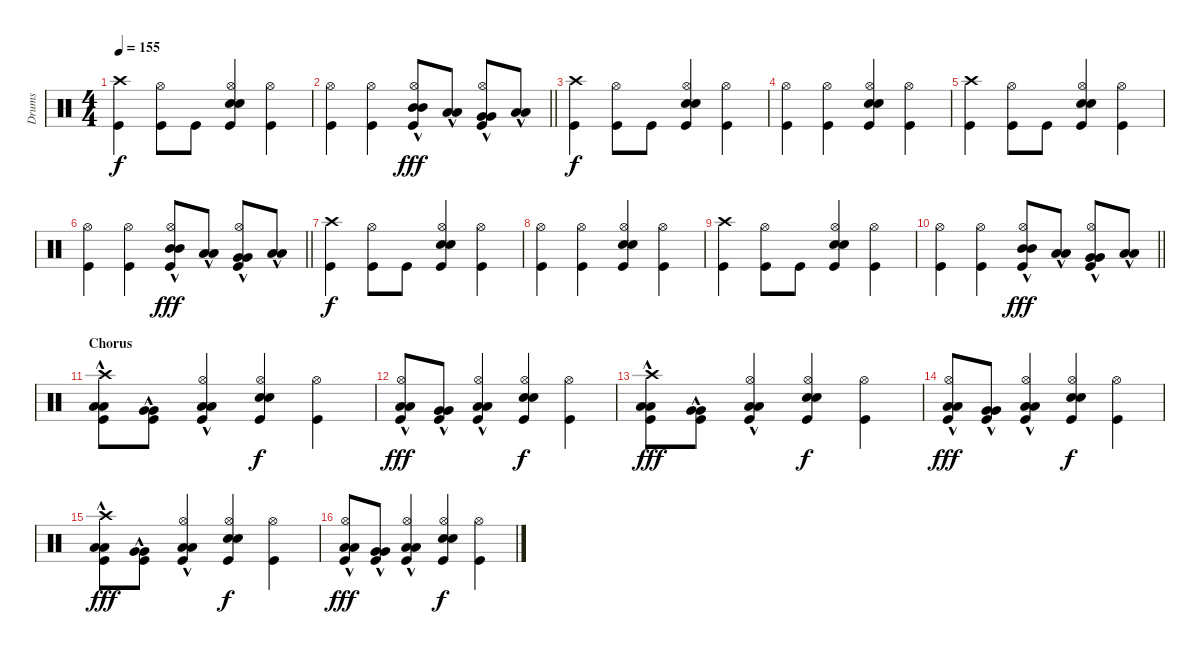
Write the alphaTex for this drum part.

\track ("Drums" "Drums") {instrument percussion}
\staff {score}
\articulation defaults
\ts (4 4)
\tempo 155
\clef neutral
\ks c
("Crash high (hit)" "Kick (hit)").4{dy f} ("Hi-Hat (open)" "Kick (hit)").8 "Kick (hit)".8 ("Hi-Hat (open)" "Snare (hit) 2" "Electric Snare (hit)" "Kick (hit)").4 ("Hi-Hat (open)" "Kick (hit)").4 |
\barLineRight lightlight
("Hi-Hat (open)" "Kick (hit)").4 ("Hi-Hat (open)" "Kick (hit)").4 ("Hi-Hat (open)" "Mid Tom (hit)"{hac} "Mid Tom (hit)"{hac} "Kick (hit)").8{dy fff} ("Low Tom (hit)"{hac} "Low Tom (hit)"{hac}).8 ("Hi-Hat (open)" "Very Low Tom (hit)"{hac} "Very Low Tom (hit)"{hac} "Kick (hit)").8 ("Low Floor Tom (hit)"{hac} "Low Floor Tom (hit)"{hac}).8 |
("Crash high (hit)" "Kick (hit)").4{dy f} ("Hi-Hat (open)" "Kick (hit)").8 "Kick (hit)".8 ("Hi-Hat (open)" "Snare (hit) 2" "Electric Snare (hit)" "Kick (hit)").4 ("Hi-Hat (open)" "Kick (hit)").4 |
("Hi-Hat (open)" "Kick (hit)").4 ("Hi-Hat (open)" "Kick (hit)").4 ("Hi-Hat (open)" "Snare (hit) 2" "Electric Snare (hit)" "Kick (hit)").4 ("Hi-Hat (open)" "Kick (hit)").4 |
("Crash high (hit)" "Kick (hit)").4 ("Hi-Hat (open)" "Kick (hit)").8 "Kick (hit)".8 ("Hi-Hat (open)" "Snare (hit) 2" "Electric Snare (hit)" "Kick (hit)").4 ("Hi-Hat (open)" "Kick (hit)").4 |
\barLineRight lightlight
("Hi-Hat (open)" "Kick (hit)").4 ("Hi-Hat (open)" "Kick (hit)").4 ("Hi-Hat (open)" "Mid Tom (hit)"{hac} "Mid Tom (hit)"{hac} "Kick (hit)").8{dy fff} ("Low Tom (hit)"{hac} "Low Tom (hit)"{hac}).8 ("Hi-Hat (open)" "Very Low Tom (hit)"{hac} "Very Low Tom (hit)"{hac} "Kick (hit)").8 ("Low Floor Tom (hit)"{hac} "Low Floor Tom (hit)"{hac}).8 |
("Crash high (hit)" "Kick (hit)").4{dy f} ("Hi-Hat (open)" "Kick (hit)").8 "Kick (hit)".8 ("Hi-Hat (open)" "Snare (hit) 2" "Electric Snare (hit)" "Kick (hit)").4 ("Hi-Hat (open)" "Kick (hit)").4 |
("Hi-Hat (open)" "Kick (hit)").4 ("Hi-Hat (open)" "Kick (hit)").4 ("Hi-Hat (open)" "Snare (hit) 2" "Electric Snare (hit)" "Kick (hit)").4 ("Hi-Hat (open)" "Kick (hit)").4 |
("Crash high (hit)" "Kick (hit)").4 ("Hi-Hat (open)" "Kick (hit)").8 "Kick (hit)".8 ("Hi-Hat (open)" "Snare (hit) 2" "Electric Snare (hit)" "Kick (hit)").4 ("Hi-Hat (open)" "Kick (hit)").4 |
\barLineRight lightlight
("Hi-Hat (open)" "Kick (hit)").4 ("Hi-Hat (open)" "Kick (hit)").4 ("Hi-Hat (open)" "Mid Tom (hit)"{hac} "Mid Tom (hit)"{hac} "Kick (hit)").8{dy fff} ("Low Tom (hit)"{hac} "Low Tom (hit)"{hac}).8 ("Hi-Hat (open)" "Very Low Tom (hit)"{hac} "Very Low Tom (hit)"{hac} "Kick (hit)").8 ("Low Floor Tom (hit)"{hac} "Low Floor Tom (hit)"{hac}).8 |
\section ("" "Chorus")
("Crash high (hit)" "Low Tom (hit)"{hac} "Low Tom (hit)"{hac} "Kick (hit)").8 ("Very Low Tom (hit)"{hac} "Very Low Tom (hit)"{hac} "Kick (hit)").8 ("Hi-Hat (open)" "Low Floor Tom (hit)"{hac} "Low Floor Tom (hit)"{hac} "Kick (hit)").4 ("Hi-Hat (open)" "Snare (hit) 2" "Electric Snare (hit)" "Kick (hit)").4{dy f} ("Hi-Hat (open)" "Kick (hit)").4 |
("Hi-Hat (open)" "Low Tom (hit)"{hac} "Low Tom (hit)"{hac} "Kick (hit)").8{dy fff} ("Very Low Tom (hit)"{hac} "Very Low Tom (hit)"{hac} "Kick (hit)").8 ("Hi-Hat (open)" "Low Floor Tom (hit)"{hac} "Low Floor Tom (hit)"{hac} "Kick (hit)").4 ("Hi-Hat (open)" "Snare (hit) 2" "Electric Snare (hit)" "Kick (hit)").4{dy f} ("Hi-Hat (open)" "Kick (hit)").4 |
("Crash high (hit)" "Low Tom (hit)"{hac} "Low Tom (hit)"{hac} "Kick (hit)").8{dy fff} ("Very Low Tom (hit)"{hac} "Very Low Tom (hit)"{hac} "Kick (hit)").8 ("Hi-Hat (open)" "Low Floor Tom (hit)"{hac} "Low Floor Tom (hit)"{hac} "Kick (hit)").4 ("Hi-Hat (open)" "Snare (hit) 2" "Electric Snare (hit)" "Kick (hit)").4{dy f} ("Hi-Hat (open)" "Kick (hit)").4 |
("Hi-Hat (open)" "Low Tom (hit)"{hac} "Low Tom (hit)"{hac} "Kick (hit)").8{dy fff} ("Very Low Tom (hit)"{hac} "Very Low Tom (hit)"{hac} "Kick (hit)").8 ("Hi-Hat (open)" "Low Floor Tom (hit)"{hac} "Low Floor Tom (hit)"{hac} "Kick (hit)").4 ("Hi-Hat (open)" "Snare (hit) 2" "Electric Snare (hit)" "Kick (hit)").4{dy f} ("Hi-Hat (open)" "Kick (hit)").4 |
("Crash high (hit)" "Low Tom (hit)"{hac} "Low Tom (hit)"{hac} "Kick (hit)").8{dy fff} ("Very Low Tom (hit)"{hac} "Very Low Tom (hit)"{hac} "Kick (hit)").8 ("Hi-Hat (open)" "Low Floor Tom (hit)"{hac} "Low Floor Tom (hit)"{hac} "Kick (hit)").4 ("Hi-Hat (open)" "Snare (hit) 2" "Electric Snare (hit)" "Kick (hit)").4{dy f} ("Hi-Hat (open)" "Kick (hit)").4 |
("Hi-Hat (open)" "Low Tom (hit)"{hac} "Low Tom (hit)"{hac} "Kick (hit)").8{dy fff} ("Very Low Tom (hit)"{hac} "Very Low Tom (hit)"{hac} "Kick (hit)").8 ("Hi-Hat (open)" "Low Floor Tom (hit)"{hac} "Low Floor Tom (hit)"{hac} "Kick (hit)").4 ("Hi-Hat (open)" "Snare (hit) 2" "Electric Snare (hit)" "Kick (hit)").4{dy f} ("Hi-Hat (open)" "Kick (hit)").4
